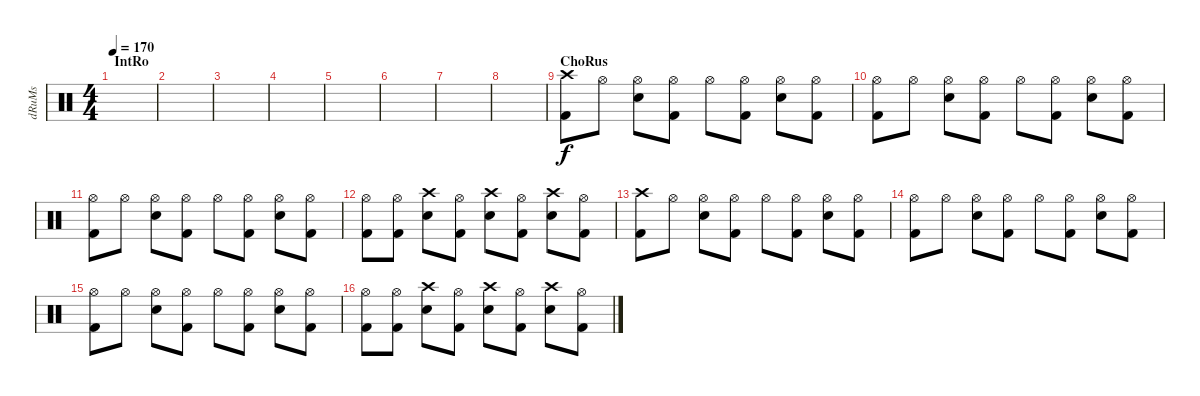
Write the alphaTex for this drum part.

\track ("dRuMs" "dRuMs") {instrument percussion}
\staff {score}
\articulation defaults
\ts (4 4)
\section ("" "IntRo")
\tempo 170
\clef neutral
\ks c
|
|
|
|
|
|
|
|
\section ("" "ChoRus")
("Crash high (hit)" "Kick (hit) 2").8 "Hi-Hat (open)".8 ("Hi-Hat (open)" "Electric Snare (hit)").8 ("Hi-Hat (open)" "Kick (hit) 2").8 "Hi-Hat (open)".8 ("Hi-Hat (open)" "Kick (hit) 2").8 ("Hi-Hat (open)" "Electric Snare (hit)").8 ("Hi-Hat (open)" "Kick (hit) 2").8 |
("Hi-Hat (open)" "Kick (hit) 2").8 "Hi-Hat (open)".8 ("Hi-Hat (open)" "Electric Snare (hit)").8 ("Hi-Hat (open)" "Kick (hit) 2").8 "Hi-Hat (open)".8 ("Hi-Hat (open)" "Kick (hit) 2").8 ("Hi-Hat (open)" "Electric Snare (hit)").8 ("Hi-Hat (open)" "Kick (hit) 2").8 |
("Hi-Hat (open)" "Kick (hit) 2").8 "Hi-Hat (open)".8 ("Hi-Hat (open)" "Electric Snare (hit)").8 ("Hi-Hat (open)" "Kick (hit) 2").8 "Hi-Hat (open)".8 ("Hi-Hat (open)" "Kick (hit) 2").8 ("Hi-Hat (open)" "Electric Snare (hit)").8 ("Hi-Hat (open)" "Kick (hit) 2").8 |
("Hi-Hat (open)" "Kick (hit) 2").8 ("Hi-Hat (open)" "Kick (hit) 2").8 ("Crash high (hit)" "Electric Snare (hit)").8 ("Hi-Hat (open)" "Kick (hit) 2").8 ("Crash high (hit)" "Electric Snare (hit)").8 ("Hi-Hat (open)" "Kick (hit) 2").8 ("Crash high (hit)" "Electric Snare (hit)").8 ("Hi-Hat (open)" "Kick (hit) 2").8 |
("Crash high (hit)" "Kick (hit) 2").8 "Hi-Hat (open)".8 ("Hi-Hat (open)" "Electric Snare (hit)").8 ("Hi-Hat (open)" "Kick (hit) 2").8 "Hi-Hat (open)".8 ("Hi-Hat (open)" "Kick (hit) 2").8 ("Hi-Hat (open)" "Electric Snare (hit)").8 ("Hi-Hat (open)" "Kick (hit) 2").8 |
("Hi-Hat (open)" "Kick (hit) 2").8 "Hi-Hat (open)".8 ("Hi-Hat (open)" "Electric Snare (hit)").8 ("Hi-Hat (open)" "Kick (hit) 2").8 "Hi-Hat (open)".8 ("Hi-Hat (open)" "Kick (hit) 2").8 ("Hi-Hat (open)" "Electric Snare (hit)").8 ("Hi-Hat (open)" "Kick (hit) 2").8 |
("Hi-Hat (open)" "Kick (hit) 2").8 "Hi-Hat (open)".8 ("Hi-Hat (open)" "Electric Snare (hit)").8 ("Hi-Hat (open)" "Kick (hit) 2").8 "Hi-Hat (open)".8 ("Hi-Hat (open)" "Kick (hit) 2").8 ("Hi-Hat (open)" "Electric Snare (hit)").8 ("Hi-Hat (open)" "Kick (hit) 2").8 |
("Hi-Hat (open)" "Kick (hit) 2").8 ("Hi-Hat (open)" "Kick (hit) 2").8 ("Crash high (hit)" "Electric Snare (hit)").8 ("Hi-Hat (open)" "Kick (hit) 2").8 ("Crash high (hit)" "Electric Snare (hit)").8 ("Hi-Hat (open)" "Kick (hit) 2").8 ("Crash high (hit)" "Electric Snare (hit)").8 ("Hi-Hat (open)" "Kick (hit) 2").8
